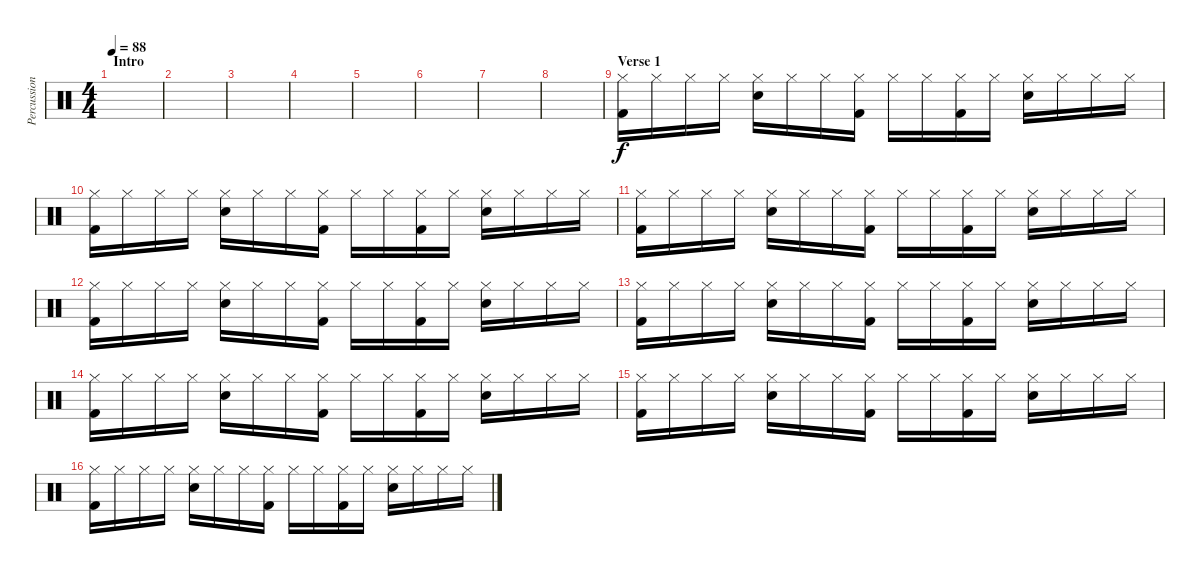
\track ("Percussion" "Percussion") {instrument percussion}
\staff {score}
\articulation defaults
\ts (4 4)
\section ("" "Intro")
\tempo 88
\clef neutral
\ks c
|
|
|
|
|
|
|
|
\section ("" "Verse 1")
("Hi-Hat (closed)" "Kick (hit) 2").16 "Hi-Hat (closed)".16 "Hi-Hat (closed)".16 "Hi-Hat (closed)".16 ("Hi-Hat (closed)" "Electric Snare (hit)").16 "Hi-Hat (closed)".16 "Hi-Hat (closed)".16 ("Hi-Hat (closed)" "Kick (hit) 2").16 "Hi-Hat (closed)".16 "Hi-Hat (closed)".16 ("Hi-Hat (closed)" "Kick (hit) 2").16 "Hi-Hat (closed)".16 ("Hi-Hat (closed)" "Electric Snare (hit)").16 "Hi-Hat (closed)".16 "Hi-Hat (closed)".16 "Hi-Hat (closed)".16 |
("Hi-Hat (closed)" "Kick (hit) 2").16 "Hi-Hat (closed)".16 "Hi-Hat (closed)".16 "Hi-Hat (closed)".16 ("Hi-Hat (closed)" "Electric Snare (hit)").16 "Hi-Hat (closed)".16 "Hi-Hat (closed)".16 ("Hi-Hat (closed)" "Kick (hit) 2").16 "Hi-Hat (closed)".16 "Hi-Hat (closed)".16 ("Hi-Hat (closed)" "Kick (hit) 2").16 "Hi-Hat (closed)".16 ("Hi-Hat (closed)" "Electric Snare (hit)").16 "Hi-Hat (closed)".16 "Hi-Hat (closed)".16 "Hi-Hat (closed)".16 |
("Hi-Hat (closed)" "Kick (hit) 2").16 "Hi-Hat (closed)".16 "Hi-Hat (closed)".16 "Hi-Hat (closed)".16 ("Hi-Hat (closed)" "Electric Snare (hit)").16 "Hi-Hat (closed)".16 "Hi-Hat (closed)".16 ("Hi-Hat (closed)" "Kick (hit) 2").16 "Hi-Hat (closed)".16 "Hi-Hat (closed)".16 ("Hi-Hat (closed)" "Kick (hit) 2").16 "Hi-Hat (closed)".16 ("Hi-Hat (closed)" "Electric Snare (hit)").16 "Hi-Hat (closed)".16 "Hi-Hat (closed)".16 "Hi-Hat (closed)".16 |
("Hi-Hat (closed)" "Kick (hit) 2").16 "Hi-Hat (closed)".16 "Hi-Hat (closed)".16 "Hi-Hat (closed)".16 ("Hi-Hat (closed)" "Electric Snare (hit)").16 "Hi-Hat (closed)".16 "Hi-Hat (closed)".16 ("Hi-Hat (closed)" "Kick (hit) 2").16 "Hi-Hat (closed)".16 "Hi-Hat (closed)".16 ("Hi-Hat (closed)" "Kick (hit) 2").16 "Hi-Hat (closed)".16 ("Hi-Hat (closed)" "Electric Snare (hit)").16 "Hi-Hat (closed)".16 "Hi-Hat (closed)".16 "Hi-Hat (closed)".16 |
("Hi-Hat (closed)" "Kick (hit) 2").16 "Hi-Hat (closed)".16 "Hi-Hat (closed)".16 "Hi-Hat (closed)".16 ("Hi-Hat (closed)" "Electric Snare (hit)").16 "Hi-Hat (closed)".16 "Hi-Hat (closed)".16 ("Hi-Hat (closed)" "Kick (hit) 2").16 "Hi-Hat (closed)".16 "Hi-Hat (closed)".16 ("Hi-Hat (closed)" "Kick (hit) 2").16 "Hi-Hat (closed)".16 ("Hi-Hat (closed)" "Electric Snare (hit)").16 "Hi-Hat (closed)".16 "Hi-Hat (closed)".16 "Hi-Hat (closed)".16 |
("Hi-Hat (closed)" "Kick (hit) 2").16 "Hi-Hat (closed)".16 "Hi-Hat (closed)".16 "Hi-Hat (closed)".16 ("Hi-Hat (closed)" "Electric Snare (hit)").16 "Hi-Hat (closed)".16 "Hi-Hat (closed)".16 ("Hi-Hat (closed)" "Kick (hit) 2").16 "Hi-Hat (closed)".16 "Hi-Hat (closed)".16 ("Hi-Hat (closed)" "Kick (hit) 2").16 "Hi-Hat (closed)".16 ("Hi-Hat (closed)" "Electric Snare (hit)").16 "Hi-Hat (closed)".16 "Hi-Hat (closed)".16 "Hi-Hat (closed)".16 |
("Hi-Hat (closed)" "Kick (hit) 2").16 "Hi-Hat (closed)".16 "Hi-Hat (closed)".16 "Hi-Hat (closed)".16 ("Hi-Hat (closed)" "Electric Snare (hit)").16 "Hi-Hat (closed)".16 "Hi-Hat (closed)".16 ("Hi-Hat (closed)" "Kick (hit) 2").16 "Hi-Hat (closed)".16 "Hi-Hat (closed)".16 ("Hi-Hat (closed)" "Kick (hit) 2").16 "Hi-Hat (closed)".16 ("Hi-Hat (closed)" "Electric Snare (hit)").16 "Hi-Hat (closed)".16 "Hi-Hat (closed)".16 "Hi-Hat (closed)".16 |
("Hi-Hat (closed)" "Kick (hit) 2").16 "Hi-Hat (closed)".16 "Hi-Hat (closed)".16 "Hi-Hat (closed)".16 ("Hi-Hat (closed)" "Electric Snare (hit)").16 "Hi-Hat (closed)".16 "Hi-Hat (closed)".16 ("Hi-Hat (closed)" "Kick (hit) 2").16 "Hi-Hat (closed)".16 "Hi-Hat (closed)".16 ("Hi-Hat (closed)" "Kick (hit) 2").16 "Hi-Hat (closed)".16 ("Hi-Hat (closed)" "Electric Snare (hit)").16 "Hi-Hat (closed)".16 "Hi-Hat (closed)".16 "Hi-Hat (closed)".16
